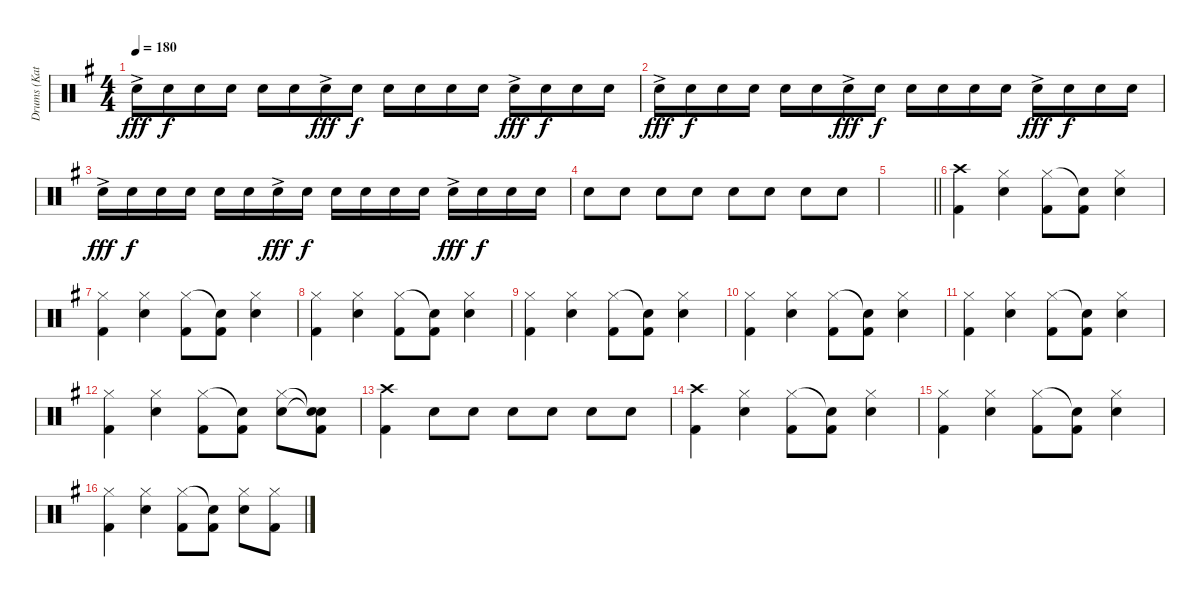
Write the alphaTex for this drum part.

\track ("Drums (Katsuji)" "Drums (Kat") {instrument percussion}
\staff {score}
\articulation defaults
\ts (4 4)
\tempo 180
\clef neutral
\ks g "Electric Snare (hit)"{ac}.16{dy fff} "Snare (hit) 2".16{dy f} "Snare (hit) 2".16 "Snare (hit) 2".16 "Snare (hit) 2".16 "Snare (hit) 2".16 "Electric Snare (hit)"{ac}.16{dy fff} "Snare (hit) 2".16{dy f} "Snare (hit) 2".16 "Snare (hit) 2".16 "Snare (hit) 2".16 "Snare (hit) 2".16 "Electric Snare (hit)"{ac}.16{dy fff} "Snare (hit) 2".16{dy f} "Snare (hit) 2".16 "Snare (hit) 2".16
|
"Electric Snare (hit)"{ac}.16{dy fff} "Snare (hit) 2".16{dy f} "Snare (hit) 2".16 "Snare (hit) 2".16 "Snare (hit) 2".16 "Snare (hit) 2".16 "Electric Snare (hit)"{ac}.16{dy fff} "Snare (hit) 2".16{dy f} "Snare (hit) 2".16 "Snare (hit) 2".16 "Snare (hit) 2".16 "Snare (hit) 2".16 "Electric Snare (hit)"{ac}.16{dy fff} "Snare (hit) 2".16{dy f} "Snare (hit) 2".16 "Snare (hit) 2".16 |
"Electric Snare (hit)"{ac}.16{dy fff} "Snare (hit) 2".16{dy f} "Snare (hit) 2".16 "Snare (hit) 2".16 "Snare (hit) 2".16 "Snare (hit) 2".16 "Electric Snare (hit)"{ac}.16{dy fff} "Snare (hit) 2".16{dy f} "Snare (hit) 2".16 "Snare (hit) 2".16 "Snare (hit) 2".16 "Snare (hit) 2".16 "Electric Snare (hit)"{ac}.16{dy fff} "Snare (hit) 2".16{dy f} "Snare (hit) 2".16 "Snare (hit) 2".16 |
"Snare (hit) 2".8 "Snare (hit) 2".8 "Snare (hit) 2".8 "Snare (hit) 2".8 "Snare (hit) 2".8 "Snare (hit) 2".8 "Snare (hit) 2".8 "Snare (hit) 2".8 |
\barLineRight lightlight
|
("Crash high (hit)" "Kick (hit) 2").4 ("Hi-Hat (closed)" "Snare (hit) 2").4 ("Hi-Hat (closed)" "Kick (hit) 2").8 ("Snare (hit)"{t} "Kick (hit) 2").8 ("Hi-Hat (closed)" "Snare (hit) 2").4 |
("Hi-Hat (closed)" "Kick (hit) 2").4 ("Hi-Hat (closed)" "Snare (hit) 2").4 ("Hi-Hat (closed)" "Kick (hit) 2").8 ("Snare (hit)"{t} "Kick (hit) 2").8 ("Hi-Hat (closed)" "Snare (hit) 2").4 |
("Hi-Hat (closed)" "Kick (hit) 2").4 ("Hi-Hat (closed)" "Snare (hit) 2").4 ("Hi-Hat (closed)" "Kick (hit) 2").8 ("Snare (hit)"{t} "Kick (hit) 2").8 ("Hi-Hat (closed)" "Snare (hit) 2").4 |
("Hi-Hat (closed)" "Kick (hit) 2").4 ("Hi-Hat (closed)" "Snare (hit) 2").4 ("Hi-Hat (closed)" "Kick (hit) 2").8 ("Snare (hit)"{t} "Kick (hit) 2").8 ("Hi-Hat (closed)" "Snare (hit) 2").4 |
("Hi-Hat (closed)" "Kick (hit) 2").4 ("Hi-Hat (closed)" "Snare (hit) 2").4 ("Hi-Hat (closed)" "Kick (hit) 2").8 ("Snare (hit)"{t} "Kick (hit) 2").8 ("Hi-Hat (closed)" "Snare (hit) 2").4 |
("Hi-Hat (closed)" "Kick (hit) 2").4 ("Hi-Hat (closed)" "Snare (hit) 2").4 ("Hi-Hat (closed)" "Kick (hit) 2").8 ("Snare (hit)"{t} "Kick (hit) 2").8 ("Hi-Hat (closed)" "Snare (hit) 2").4 |
("Hi-Hat (closed)" "Kick (hit) 2").4 ("Hi-Hat (closed)" "Snare (hit) 2").4 ("Hi-Hat (closed)" "Kick (hit) 2").8 ("Snare (hit)"{t} "Kick (hit) 2").8 ("Hi-Hat (closed)" "Snare (hit) 2").8 ("Snare (hit)"{t} "Snare (hit)"{t} "Kick (hit) 2").8 |
("Crash high (hit)" "Kick (hit) 2").4 "Snare (hit) 2".8 "Snare (hit) 2".8 "Snare (hit) 2".8 "Snare (hit) 2".8 "Snare (hit) 2".8 "Snare (hit) 2".8 |
("Crash high (hit)" "Kick (hit) 2").4 ("Hi-Hat (closed)" "Snare (hit) 2").4 ("Hi-Hat (closed)" "Kick (hit) 2").8 ("Snare (hit)"{t} "Kick (hit) 2").8 ("Hi-Hat (closed)" "Snare (hit) 2").4 |
("Hi-Hat (closed)" "Kick (hit) 2").4 ("Hi-Hat (closed)" "Snare (hit) 2").4 ("Hi-Hat (closed)" "Kick (hit) 2").8 ("Snare (hit)"{t} "Kick (hit) 2").8 ("Hi-Hat (closed)" "Snare (hit) 2").4 |
("Hi-Hat (closed)" "Kick (hit) 2").4 ("Hi-Hat (closed)" "Snare (hit) 2").4 ("Hi-Hat (closed)" "Kick (hit) 2").8 ("Snare (hit)"{t} "Kick (hit) 2").8 ("Hi-Hat (closed)" "Snare (hit) 2").8 ("Hi-Hat (closed)" "Kick (hit) 2").8
